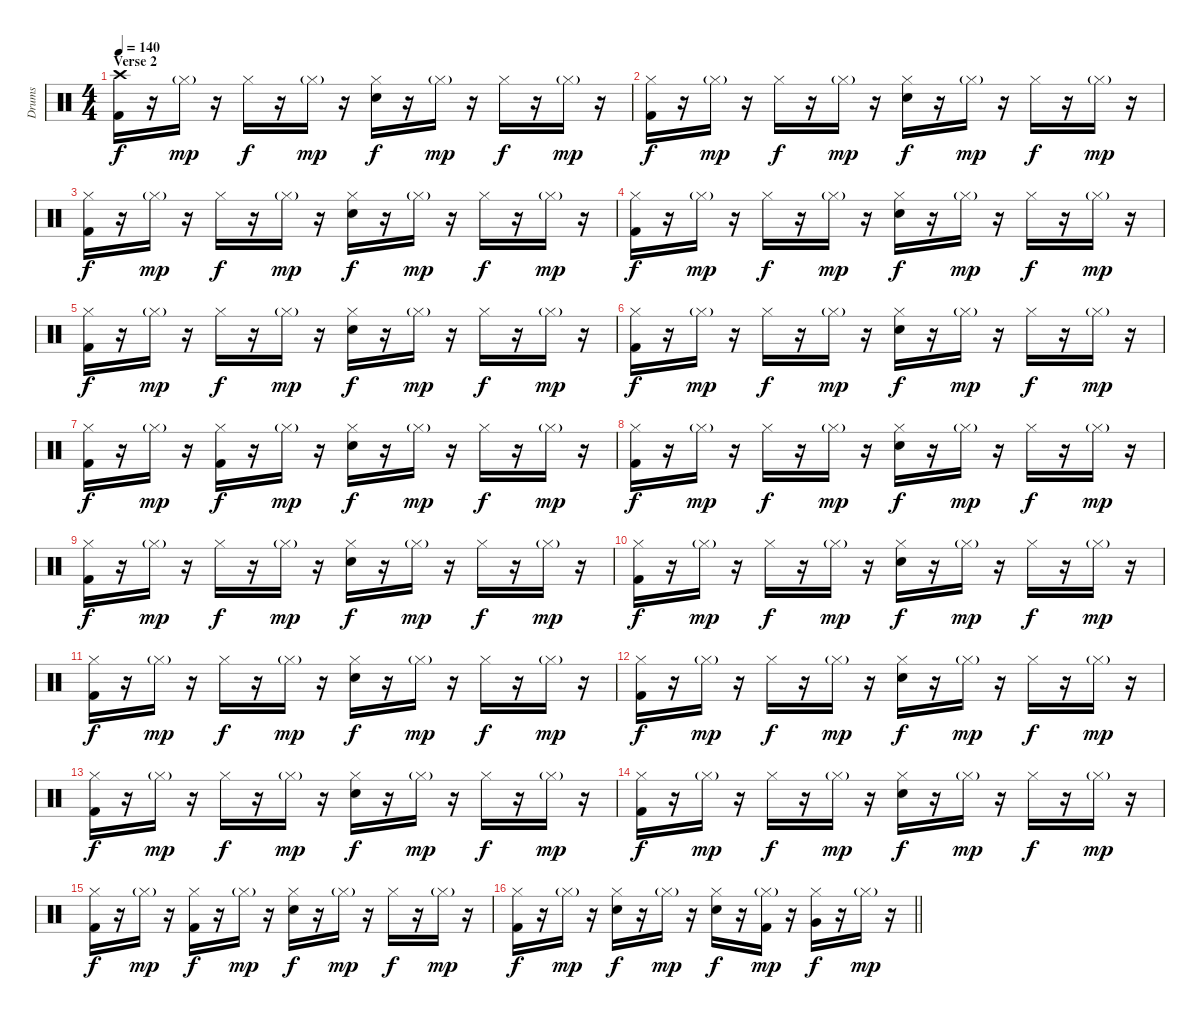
\track ("Drums" "Drums") {instrument percussion}
\staff {score}
\articulation defaults
\ts (4 4)
\section ("" "Verse 2")
\tempo 140
\clef neutral
\ks c
("Crash high (hit)" "Kick (hit) 2").16{dy f} r.16 "Hi-Hat (closed)"{g}.16{dy mp} r.16 "Hi-Hat (closed)".16{dy f} r.16 "Hi-Hat (closed)"{g}.16{dy mp} r.16 ("Hi-Hat (closed)" "Snare (hit) 2").16{dy f} r.16 "Hi-Hat (closed)"{g}.16{dy mp} r.16 "Hi-Hat (closed)".16{dy f} r.16 "Hi-Hat (closed)"{g}.16{dy mp} r.16 |
("Hi-Hat (closed)" "Kick (hit) 2").16{dy f} r.16 "Hi-Hat (closed)"{g}.16{dy mp} r.16 "Hi-Hat (closed)".16{dy f} r.16 "Hi-Hat (closed)"{g}.16{dy mp} r.16 ("Hi-Hat (closed)" "Snare (hit) 2").16{dy f} r.16 "Hi-Hat (closed)"{g}.16{dy mp} r.16 "Hi-Hat (closed)".16{dy f} r.16 "Hi-Hat (closed)"{g}.16{dy mp} r.16 |
("Hi-Hat (closed)" "Kick (hit) 2").16{dy f} r.16 "Hi-Hat (closed)"{g}.16{dy mp} r.16 "Hi-Hat (closed)".16{dy f} r.16 "Hi-Hat (closed)"{g}.16{dy mp} r.16 ("Hi-Hat (closed)" "Snare (hit) 2").16{dy f} r.16 "Hi-Hat (closed)"{g}.16{dy mp} r.16 "Hi-Hat (closed)".16{dy f} r.16 "Hi-Hat (closed)"{g}.16{dy mp} r.16 |
("Hi-Hat (closed)" "Kick (hit) 2").16{dy f} r.16 "Hi-Hat (closed)"{g}.16{dy mp} r.16 "Hi-Hat (closed)".16{dy f} r.16 "Hi-Hat (closed)"{g}.16{dy mp} r.16 ("Hi-Hat (closed)" "Snare (hit) 2").16{dy f} r.16 "Hi-Hat (closed)"{g}.16{dy mp} r.16 "Hi-Hat (closed)".16{dy f} r.16 "Hi-Hat (closed)"{g}.16{dy mp} r.16 |
("Hi-Hat (closed)" "Kick (hit) 2").16{dy f} r.16 "Hi-Hat (closed)"{g}.16{dy mp} r.16 "Hi-Hat (closed)".16{dy f} r.16 "Hi-Hat (closed)"{g}.16{dy mp} r.16 ("Hi-Hat (closed)" "Snare (hit) 2").16{dy f} r.16 "Hi-Hat (closed)"{g}.16{dy mp} r.16 "Hi-Hat (closed)".16{dy f} r.16 "Hi-Hat (closed)"{g}.16{dy mp} r.16 |
("Hi-Hat (closed)" "Kick (hit) 2").16{dy f} r.16 "Hi-Hat (closed)"{g}.16{dy mp} r.16 "Hi-Hat (closed)".16{dy f} r.16 "Hi-Hat (closed)"{g}.16{dy mp} r.16 ("Hi-Hat (closed)" "Snare (hit) 2").16{dy f} r.16 "Hi-Hat (closed)"{g}.16{dy mp} r.16 "Hi-Hat (closed)".16{dy f} r.16 "Hi-Hat (closed)"{g}.16{dy mp} r.16 |
("Hi-Hat (closed)" "Kick (hit) 2").16{dy f} r.16 "Hi-Hat (closed)"{g}.16{dy mp} r.16 ("Hi-Hat (closed)" "Kick (hit) 2").16{dy f} r.16 "Hi-Hat (closed)"{g}.16{dy mp} r.16 ("Hi-Hat (closed)" "Snare (hit) 2").16{dy f} r.16 "Hi-Hat (closed)"{g}.16{dy mp} r.16 "Hi-Hat (closed)".16{dy f} r.16 "Hi-Hat (closed)"{g}.16{dy mp} r.16 |
("Hi-Hat (closed)" "Kick (hit) 2").16{dy f} r.16 "Hi-Hat (closed)"{g}.16{dy mp} r.16 "Hi-Hat (closed)".16{dy f} r.16 "Hi-Hat (closed)"{g}.16{dy mp} r.16 ("Hi-Hat (closed)" "Snare (hit) 2").16{dy f} r.16 "Hi-Hat (closed)"{g}.16{dy mp} r.16 "Hi-Hat (closed)".16{dy f} r.16 "Hi-Hat (closed)"{g}.16{dy mp} r.16 |
("Hi-Hat (closed)" "Kick (hit) 2").16{dy f} r.16 "Hi-Hat (closed)"{g}.16{dy mp} r.16 "Hi-Hat (closed)".16{dy f} r.16 "Hi-Hat (closed)"{g}.16{dy mp} r.16 ("Hi-Hat (closed)" "Snare (hit) 2").16{dy f} r.16 "Hi-Hat (closed)"{g}.16{dy mp} r.16 "Hi-Hat (closed)".16{dy f} r.16 "Hi-Hat (closed)"{g}.16{dy mp} r.16 |
("Hi-Hat (closed)" "Kick (hit) 2").16{dy f} r.16 "Hi-Hat (closed)"{g}.16{dy mp} r.16 "Hi-Hat (closed)".16{dy f} r.16 "Hi-Hat (closed)"{g}.16{dy mp} r.16 ("Hi-Hat (closed)" "Snare (hit) 2").16{dy f} r.16 "Hi-Hat (closed)"{g}.16{dy mp} r.16 "Hi-Hat (closed)".16{dy f} r.16 "Hi-Hat (closed)"{g}.16{dy mp} r.16 |
("Hi-Hat (closed)" "Kick (hit) 2").16{dy f} r.16 "Hi-Hat (closed)"{g}.16{dy mp} r.16 "Hi-Hat (closed)".16{dy f} r.16 "Hi-Hat (closed)"{g}.16{dy mp} r.16 ("Hi-Hat (closed)" "Snare (hit) 2").16{dy f} r.16 "Hi-Hat (closed)"{g}.16{dy mp} r.16 "Hi-Hat (closed)".16{dy f} r.16 "Hi-Hat (closed)"{g}.16{dy mp} r.16 |
("Hi-Hat (closed)" "Kick (hit) 2").16{dy f} r.16 "Hi-Hat (closed)"{g}.16{dy mp} r.16 "Hi-Hat (closed)".16{dy f} r.16 "Hi-Hat (closed)"{g}.16{dy mp} r.16 ("Hi-Hat (closed)" "Snare (hit) 2").16{dy f} r.16 "Hi-Hat (closed)"{g}.16{dy mp} r.16 "Hi-Hat (closed)".16{dy f} r.16 "Hi-Hat (closed)"{g}.16{dy mp} r.16 |
("Hi-Hat (closed)" "Kick (hit) 2").16{dy f} r.16 "Hi-Hat (closed)"{g}.16{dy mp} r.16 "Hi-Hat (closed)".16{dy f} r.16 "Hi-Hat (closed)"{g}.16{dy mp} r.16 ("Hi-Hat (closed)" "Snare (hit) 2").16{dy f} r.16 "Hi-Hat (closed)"{g}.16{dy mp} r.16 "Hi-Hat (closed)".16{dy f} r.16 "Hi-Hat (closed)"{g}.16{dy mp} r.16 |
("Hi-Hat (closed)" "Kick (hit) 2").16{dy f} r.16 "Hi-Hat (closed)"{g}.16{dy mp} r.16 "Hi-Hat (closed)".16{dy f} r.16 "Hi-Hat (closed)"{g}.16{dy mp} r.16 ("Hi-Hat (closed)" "Snare (hit) 2").16{dy f} r.16 "Hi-Hat (closed)"{g}.16{dy mp} r.16 "Hi-Hat (closed)".16{dy f} r.16 "Hi-Hat (closed)"{g}.16{dy mp} r.16 |
("Hi-Hat (closed)" "Kick (hit) 2").16{dy f} r.16 "Hi-Hat (closed)"{g}.16{dy mp} r.16 ("Hi-Hat (closed)" "Kick (hit) 2").16{dy f} r.16 "Hi-Hat (closed)"{g}.16{dy mp} r.16 ("Hi-Hat (closed)" "Snare (hit) 2").16{dy f} r.16 "Hi-Hat (closed)"{g}.16{dy mp} r.16 "Hi-Hat (closed)".16{dy f} r.16 "Hi-Hat (closed)"{g}.16{dy mp} r.16 |
\barLineRight lightlight
("Hi-Hat (closed)" "Kick (hit) 2").16{dy f} r.16 "Hi-Hat (closed)"{g}.16{dy mp} r.16 ("Hi-Hat (closed)" "Snare (hit) 2").16{dy f} r.16 "Hi-Hat (closed)"{g}.16{dy mp} r.16 ("Hi-Hat (closed)" "Snare (hit) 2").16{dy f} r.16 ("Hi-Hat (closed)"{g} "Kick (hit) 2").16{dy mp} r.16 ("Hi-Hat (closed)" "Very Low Tom (hit)").16{dy f} r.16 "Hi-Hat (closed)"{g}.16{dy mp} r.16
